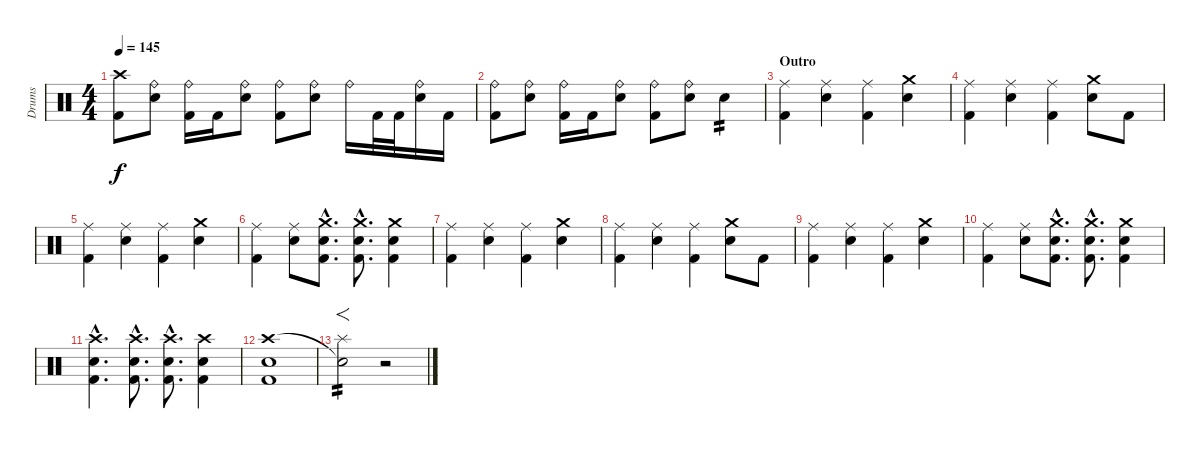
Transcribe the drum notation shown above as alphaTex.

\track ("Drums" "Drums") {instrument percussion}
\staff {score}
\articulation defaults
\ts (4 4)
\tempo 145
\clef neutral
\ks c
("Crash high (hit)" "Kick (hit) 2").8{dy f} ("Ride (bell)" "Electric Snare (hit)").8 ("Ride (bell)" "Kick (hit) 2").16 "Kick (hit) 2".16 ("Ride (bell)" "Electric Snare (hit)").8 ("Ride (bell)" "Kick (hit) 2").8 ("Ride (bell)" "Electric Snare (hit)").8 "Ride (bell)".16 "Kick (hit) 2".32 "Kick (hit) 2".32 ("Ride (bell)" "Electric Snare (hit)").16 "Kick (hit) 2".16 |
("Ride (bell)" "Kick (hit) 2").8 ("Ride (bell)" "Electric Snare (hit)").8 ("Ride (bell)" "Kick (hit) 2").16 "Kick (hit) 2".16 ("Ride (bell)" "Electric Snare (hit)").8 ("Ride (bell)" "Kick (hit) 2").8 ("Ride (bell)" "Electric Snare (hit)").8 "Electric Snare (hit)".4{tp 2} |
\section ("" "Outro")
("Ride (middle)" "Kick (hit) 2").4 ("Ride (middle)" "Electric Snare (hit)").4 ("Ride (middle)" "Kick (hit) 2").4 ("Crash medium (hit)" "Electric Snare (hit)").4 |
("Ride (middle)" "Kick (hit) 2").4 ("Ride (middle)" "Electric Snare (hit)").4 ("Ride (middle)" "Kick (hit) 2").4 ("Crash medium (hit)" "Electric Snare (hit)").8 "Kick (hit) 2".8 |
("Ride (middle)" "Kick (hit) 2").4 ("Ride (middle)" "Electric Snare (hit)").4 ("Ride (middle)" "Kick (hit) 2").4 ("Crash medium (hit)" "Electric Snare (hit)").4 |
("Ride (middle)" "Kick (hit) 2").4 ("Ride (middle)" "Electric Snare (hit)").8 ("Crash medium (hit)"{hac} "Electric Snare (hit)"{hac} "Kick (hit) 2"{hac}).8{d} ("Crash medium (hit)"{hac} "Electric Snare (hit)"{hac} "Kick (hit) 2"{hac}).8{d} ("Crash medium (hit)" "Electric Snare (hit)" "Kick (hit) 2").4 |
("Ride (middle)" "Kick (hit) 2").4 ("Ride (middle)" "Electric Snare (hit)").4 ("Ride (middle)" "Kick (hit) 2").4 ("Crash medium (hit)" "Electric Snare (hit)").4 |
("Ride (middle)" "Kick (hit) 2").4 ("Ride (middle)" "Electric Snare (hit)").4 ("Ride (middle)" "Kick (hit) 2").4 ("Crash medium (hit)" "Electric Snare (hit)").8 "Kick (hit) 2".8 |
("Ride (middle)" "Kick (hit) 2").4 ("Ride (middle)" "Electric Snare (hit)").4 ("Ride (middle)" "Kick (hit) 2").4 ("Crash medium (hit)" "Electric Snare (hit)").4 |
("Ride (middle)" "Kick (hit) 2").4 ("Ride (middle)" "Electric Snare (hit)").8 ("Crash medium (hit)"{hac} "Electric Snare (hit)"{hac} "Kick (hit) 2"{hac}).8{d} ("Crash medium (hit)"{hac} "Electric Snare (hit)"{hac} "Kick (hit) 2"{hac}).8{d} ("Crash medium (hit)" "Electric Snare (hit)" "Kick (hit) 2").4 |
("Crash high (hit)"{hac} "Electric Snare (hit)"{hac} "Kick (hit) 2"{hac}).4{d} ("Crash high (hit)"{hac} "Electric Snare (hit)"{hac} "Kick (hit) 2"{hac}).8{d} ("Crash high (hit)"{hac} "Electric Snare (hit)"{hac} "Kick (hit) 2"{hac}).8{d} ("Crash high (hit)" "Electric Snare (hit)" "Kick (hit) 2").4 |
("Crash high (hit)" "Electric Snare (hit)" "Kick (hit) 2").1 |
("Snare (hit)"{t} "Splash (hit)").2{f tp 2} r.2
